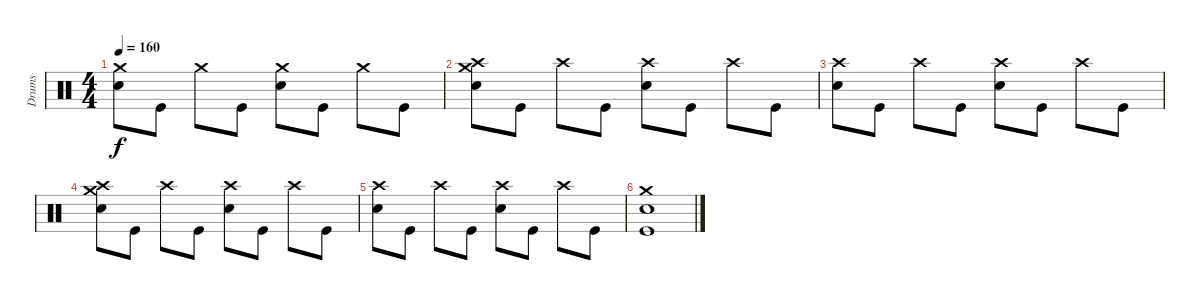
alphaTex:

\track ("Drums" "Drums") {instrument percussion}
\staff {score}
\articulation defaults
\ts (4 4)
\tempo 160
\clef neutral
\ks c
("Crash medium (hit)" "Electric Snare (hit)").8{dy f} "Kick (hit)".8 "Crash medium (hit)".8 "Kick (hit)".8 ("Crash medium (hit)" "Electric Snare (hit)").8 "Kick (hit)".8 "Crash medium (hit)".8 "Kick (hit)".8 |
("Crash medium (hit)" "Crash high (hit)" "Electric Snare (hit)").8 "Kick (hit)".8 "Crash high (hit)".8 "Kick (hit)".8 ("Crash high (hit)" "Electric Snare (hit)").8 "Kick (hit)".8 "Crash high (hit)".8 "Kick (hit)".8 |
("Crash high (hit)" "Electric Snare (hit)").8 "Kick (hit)".8 "Crash high (hit)".8 "Kick (hit)".8 ("Crash high (hit)" "Electric Snare (hit)").8 "Kick (hit)".8 "Crash high (hit)".8 "Kick (hit)".8 |
("Crash medium (hit)" "Crash high (hit)" "Electric Snare (hit)").8 "Kick (hit)".8 "Crash high (hit)".8 "Kick (hit)".8 ("Crash high (hit)" "Electric Snare (hit)").8 "Kick (hit)".8 "Crash high (hit)".8 "Kick (hit)".8 |
("Crash high (hit)" "Electric Snare (hit)").8 "Kick (hit)".8 "Crash high (hit)".8 "Kick (hit)".8 ("Crash high (hit)" "Electric Snare (hit)").8 "Kick (hit)".8 "Crash high (hit)".8 "Kick (hit)".8 |
("Crash medium (hit)" "Electric Snare (hit)" "Kick (hit)").1
